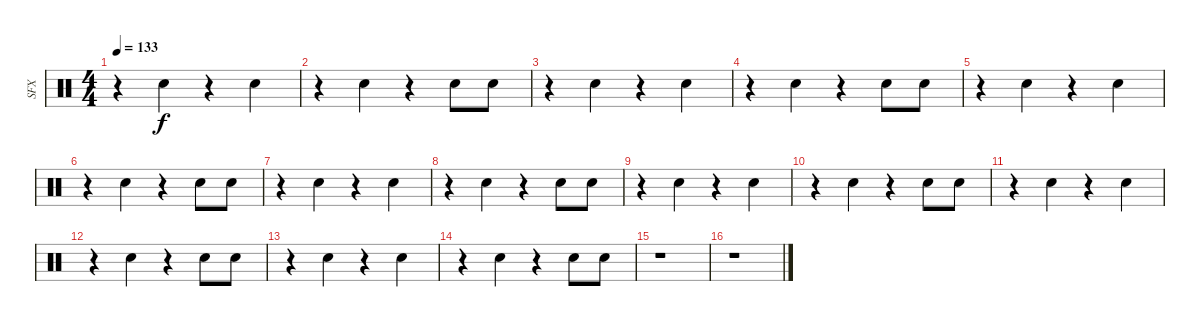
\track ("SFX" "SFX") {instrument percussion}
\staff {score}
\articulation defaults
\ts (4 4)
\tempo 133
\clef neutral
\ks c
r.4{dy f} "Hand Clap (hit)".4 r.4 "Hand Clap (hit)".4 |
r.4 "Hand Clap (hit)".4 r.4 "Hand Clap (hit)".8 "Hand Clap (hit)".8 |
r.4 "Hand Clap (hit)".4 r.4 "Hand Clap (hit)".4 |
r.4 "Hand Clap (hit)".4 r.4 "Hand Clap (hit)".8 "Hand Clap (hit)".8 |
r.4 "Hand Clap (hit)".4 r.4 "Hand Clap (hit)".4 |
r.4 "Hand Clap (hit)".4 r.4 "Hand Clap (hit)".8 "Hand Clap (hit)".8 |
r.4 "Hand Clap (hit)".4 r.4 "Hand Clap (hit)".4 |
r.4 "Hand Clap (hit)".4 r.4 "Hand Clap (hit)".8 "Hand Clap (hit)".8 |
r.4 "Hand Clap (hit)".4 r.4 "Hand Clap (hit)".4 |
r.4 "Hand Clap (hit)".4 r.4 "Hand Clap (hit)".8 "Hand Clap (hit)".8 |
r.4 "Hand Clap (hit)".4 r.4 "Hand Clap (hit)".4 |
r.4 "Hand Clap (hit)".4 r.4 "Hand Clap (hit)".8 "Hand Clap (hit)".8 |
r.4 "Hand Clap (hit)".4 r.4 "Hand Clap (hit)".4 |
r.4 "Hand Clap (hit)".4 r.4 "Hand Clap (hit)".8 "Hand Clap (hit)".8 |
r.1 |
r.1
